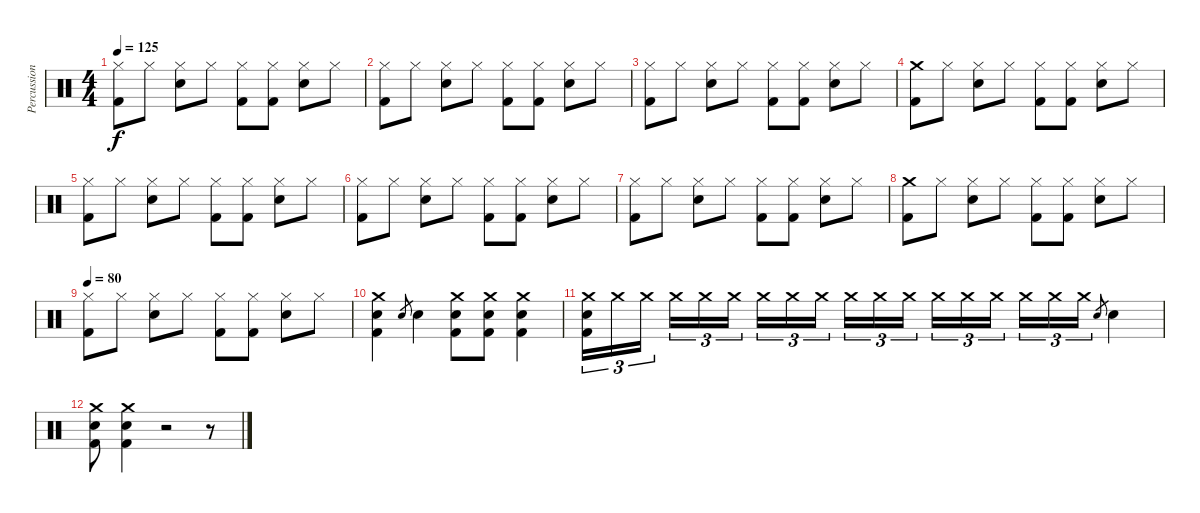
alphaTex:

\track ("Percussion" "Percussion") {instrument percussion}
\staff {score}
\articulation defaults
\ts (4 4)
\tempo 125
\clef neutral
\ks c
("Hi-Hat (closed)" "Kick (hit) 2").8{dy f} "Hi-Hat (closed)".8 ("Hi-Hat (closed)" "Snare (hit) 2").8 "Hi-Hat (closed)".8 ("Hi-Hat (closed)" "Kick (hit) 2").8 ("Hi-Hat (closed)" "Kick (hit) 2").8 ("Hi-Hat (closed)" "Snare (hit) 2").8 "Hi-Hat (closed)".8 |
("Hi-Hat (closed)" "Kick (hit) 2").8 "Hi-Hat (closed)".8 ("Hi-Hat (closed)" "Snare (hit) 2").8 "Hi-Hat (closed)".8 ("Hi-Hat (closed)" "Kick (hit) 2").8 ("Hi-Hat (closed)" "Kick (hit) 2").8 ("Hi-Hat (closed)" "Snare (hit) 2").8 "Hi-Hat (closed)".8 |
("Hi-Hat (closed)" "Kick (hit) 2").8 "Hi-Hat (closed)".8 ("Hi-Hat (closed)" "Snare (hit) 2").8 "Hi-Hat (closed)".8 ("Hi-Hat (closed)" "Kick (hit) 2").8 ("Hi-Hat (closed)" "Kick (hit) 2").8 ("Hi-Hat (closed)" "Snare (hit) 2").8 "Hi-Hat (closed)".8 |
("Crash medium (hit)" "Kick (hit) 2").8 "Hi-Hat (closed)".8 ("Hi-Hat (closed)" "Snare (hit) 2").8 "Hi-Hat (closed)".8 ("Hi-Hat (closed)" "Kick (hit) 2").8 ("Hi-Hat (closed)" "Kick (hit) 2").8 ("Hi-Hat (closed)" "Snare (hit) 2").8 "Hi-Hat (closed)".8 |
("Hi-Hat (closed)" "Kick (hit) 2").8 "Hi-Hat (closed)".8 ("Hi-Hat (closed)" "Snare (hit) 2").8 "Hi-Hat (closed)".8 ("Hi-Hat (closed)" "Kick (hit) 2").8 ("Hi-Hat (closed)" "Kick (hit) 2").8 ("Hi-Hat (closed)" "Snare (hit) 2").8 "Hi-Hat (closed)".8 |
("Hi-Hat (closed)" "Kick (hit) 2").8 "Hi-Hat (closed)".8 ("Hi-Hat (closed)" "Snare (hit) 2").8 "Hi-Hat (closed)".8 ("Hi-Hat (closed)" "Kick (hit) 2").8 ("Hi-Hat (closed)" "Kick (hit) 2").8 ("Hi-Hat (closed)" "Snare (hit) 2").8 "Hi-Hat (closed)".8 |
("Hi-Hat (closed)" "Kick (hit) 2").8 "Hi-Hat (closed)".8 ("Hi-Hat (closed)" "Snare (hit) 2").8 "Hi-Hat (closed)".8 ("Hi-Hat (closed)" "Kick (hit) 2").8 ("Hi-Hat (closed)" "Kick (hit) 2").8 ("Hi-Hat (closed)" "Snare (hit) 2").8 "Hi-Hat (closed)".8 |
("Crash medium (hit)" "Kick (hit) 2").8 "Hi-Hat (closed)".8 ("Hi-Hat (closed)" "Snare (hit) 2").8 "Hi-Hat (closed)".8 ("Hi-Hat (closed)" "Kick (hit) 2").8 ("Hi-Hat (closed)" "Kick (hit) 2").8 ("Hi-Hat (closed)" "Snare (hit) 2").8 "Hi-Hat (closed)".8 |
\tempo 80
("Hi-Hat (closed)" "Kick (hit) 2").8 "Hi-Hat (closed)".8 ("Hi-Hat (closed)" "Snare (hit) 2").8 "Hi-Hat (closed)".8 ("Hi-Hat (closed)" "Kick (hit) 2").8 ("Hi-Hat (closed)" "Kick (hit) 2").8 ("Hi-Hat (closed)" "Snare (hit) 2").8 "Hi-Hat (closed)".8 |
("Crash medium (hit)" "Snare (hit) 2" "Kick (hit) 2").4 "Snare (hit) 2".8{gr} "Snare (hit) 2".4 ("Crash medium (hit)" "Snare (hit) 2" "Kick (hit) 2").8 ("Crash medium (hit)" "Snare (hit) 2" "Kick (hit) 2").8 ("Crash medium (hit)" "Snare (hit) 2" "Kick (hit) 2").4 |
("Crash medium (hit)" "Snare (hit) 2" "Kick (hit) 2").16{tu (3 2)} "Crash medium (hit)".16{tu (3 2)} "Crash medium (hit)".16{tu (3 2) beam splitsecondary} "Crash medium (hit)".16{tu (3 2)} "Crash medium (hit)".16{tu (3 2)} "Crash medium (hit)".16{tu (3 2)} "Crash medium (hit)".16{tu (3 2)} "Crash medium (hit)".16{tu (3 2)} "Crash medium (hit)".16{tu (3 2) beam splitsecondary} "Crash medium (hit)".16{tu (3 2)} "Crash medium (hit)".16{tu (3 2)} "Crash medium (hit)".16{tu (3 2)} "Crash medium (hit)".16{tu (3 2)} "Crash medium (hit)".16{tu (3 2)} "Crash medium (hit)".16{tu (3 2) beam splitsecondary} "Crash medium (hit)".16{tu (3 2)} "Crash medium (hit)".16{tu (3 2)} "Crash medium (hit)".16{tu (3 2)} "Snare (hit) 2".8{gr} "Snare (hit) 2".4 |
("Crash medium (hit)" "Snare (hit) 2" "Kick (hit) 2").8 ("Crash medium (hit)" "Snare (hit) 2" "Kick (hit) 2").4 r.2 r.8
